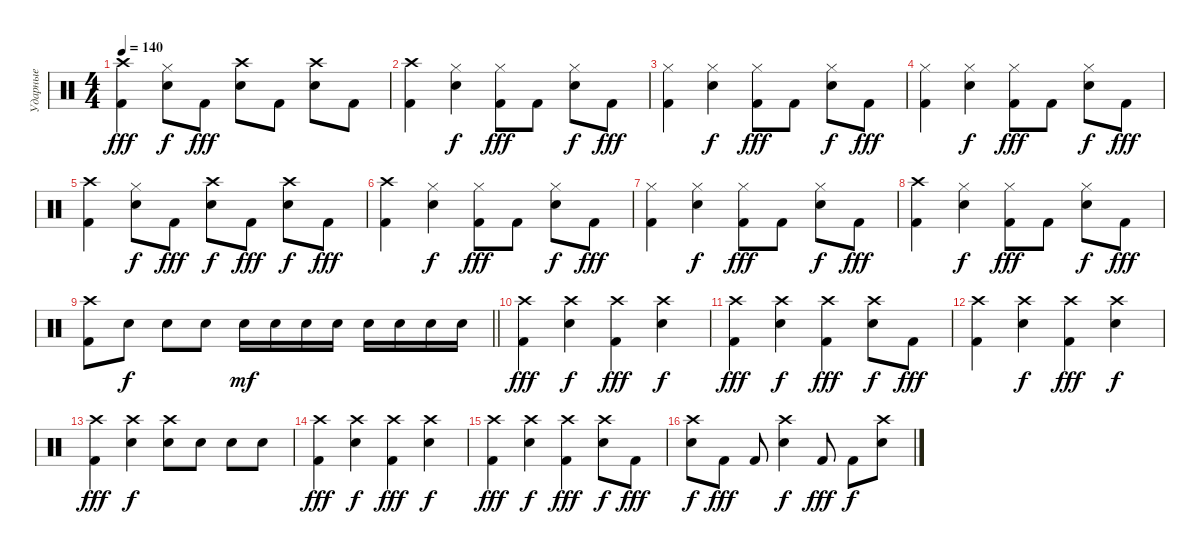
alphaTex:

\track ("Ударные" "Ударные") {instrument percussion}
\staff {score}
\articulation defaults
\ts (4 4)
\tempo 140
\clef neutral
\ks c
("Kick (hit) 2" "Crash high (hit)").4{dy fff} ("Snare (hit) 2" "Hi-Hat (closed)").8{dy f} "Kick (hit) 2".8{dy fff} ("Snare (hit) 2" "Crash high (hit)").8 "Kick (hit) 2".8 ("Snare (hit) 2" "Crash high (hit)").8 "Kick (hit) 2".8 |
("Kick (hit) 2" "Crash high (hit)").4 ("Snare (hit) 2" "Hi-Hat (closed)").4{dy f} ("Kick (hit) 2" "Hi-Hat (closed)").8{dy fff} "Kick (hit) 2".8 ("Snare (hit) 2" "Hi-Hat (closed)").8{dy f} "Kick (hit) 2".8{dy fff} |
("Kick (hit) 2" "Hi-Hat (closed)").4 ("Snare (hit) 2" "Hi-Hat (closed)").4{dy f} ("Kick (hit) 2" "Hi-Hat (closed)").8{dy fff} "Kick (hit) 2".8 ("Snare (hit) 2" "Hi-Hat (closed)").8{dy f} "Kick (hit) 2".8{dy fff} |
("Kick (hit) 2" "Hi-Hat (closed)").4 ("Snare (hit) 2" "Hi-Hat (closed)").4{dy f} ("Kick (hit) 2" "Hi-Hat (closed)").8{dy fff} "Kick (hit) 2".8 ("Snare (hit) 2" "Hi-Hat (closed)").8{dy f} "Kick (hit) 2".8{dy fff} |
("Kick (hit) 2" "Crash high (hit)").4 ("Snare (hit) 2" "Hi-Hat (closed)").8{dy f} "Kick (hit) 2".8{dy fff} ("Snare (hit) 2" "Crash high (hit)").8{dy f} "Kick (hit) 2".8{dy fff} ("Snare (hit) 2" "Crash high (hit)").8{dy f} "Kick (hit) 2".8{dy fff} |
("Kick (hit) 2" "Crash high (hit)").4 ("Snare (hit) 2" "Hi-Hat (closed)").4{dy f} ("Kick (hit) 2" "Hi-Hat (closed)").8{dy fff} "Kick (hit) 2".8 ("Snare (hit) 2" "Hi-Hat (closed)").8{dy f} "Kick (hit) 2".8{dy fff} |
("Kick (hit) 2" "Hi-Hat (closed)").4 ("Snare (hit) 2" "Hi-Hat (closed)").4{dy f} ("Kick (hit) 2" "Hi-Hat (closed)").8{dy fff} "Kick (hit) 2".8 ("Snare (hit) 2" "Hi-Hat (closed)").8{dy f} "Kick (hit) 2".8{dy fff} |
("Kick (hit) 2" "Crash high (hit)").4 ("Snare (hit) 2" "Hi-Hat (closed)").4{dy f} ("Kick (hit) 2" "Hi-Hat (closed)").8{dy fff} "Kick (hit) 2".8 ("Snare (hit) 2" "Hi-Hat (closed)").8{dy f} "Kick (hit) 2".8{dy fff} |
\barLineRight lightlight
("Kick (hit) 2" "Crash high (hit)").8 "Snare (hit) 2".8{dy f} "Snare (hit) 2".8 "Snare (hit) 2".8 "Snare (hit) 2".16{dy mf} "Snare (hit) 2".16 "Snare (hit) 2".16 "Snare (hit) 2".16 "Snare (hit) 2".16 "Snare (hit) 2".16 "Snare (hit) 2".16 "Snare (hit) 2".16 |
("Kick (hit) 2" "Crash high (hit)").4{dy fff} ("Snare (hit) 2" "Crash high (hit)").4{dy f} ("Kick (hit) 2" "Crash high (hit)").4{dy fff} ("Snare (hit) 2" "Crash high (hit)").4{dy f} |
("Kick (hit) 2" "Crash high (hit)").4{dy fff} ("Snare (hit) 2" "Crash high (hit)").4{dy f} ("Kick (hit) 2" "Crash high (hit)").4{dy fff} ("Snare (hit) 2" "Crash high (hit)").8{dy f} "Kick (hit) 2".8{dy fff} |
("Kick (hit) 2" "Crash high (hit)").4 ("Snare (hit) 2" "Crash high (hit)").4{dy f} ("Kick (hit) 2" "Crash high (hit)").4{dy fff} ("Snare (hit) 2" "Crash high (hit)").4{dy f} |
("Kick (hit) 2" "Crash high (hit)").4{dy fff} ("Snare (hit) 2" "Crash high (hit)").4{dy f} ("Snare (hit) 2" "Crash high (hit)").8 "Snare (hit) 2".8 "Snare (hit) 2".8 "Snare (hit) 2".8 |
("Kick (hit) 2" "Crash high (hit)").4{dy fff} ("Snare (hit) 2" "Crash high (hit)").4{dy f} ("Kick (hit) 2" "Crash high (hit)").4{dy fff} ("Snare (hit) 2" "Crash high (hit)").4{dy f} |
("Kick (hit) 2" "Crash high (hit)").4{dy fff} ("Snare (hit) 2" "Crash high (hit)").4{dy f} ("Kick (hit) 2" "Crash high (hit)").4{dy fff} ("Snare (hit) 2" "Crash high (hit)").8{dy f} "Kick (hit) 2".8{dy fff} |
("Snare (hit) 2" "Crash high (hit)").8{dy f} "Kick (hit) 2".8{dy fff} "Kick (hit) 2".8 ("Snare (hit) 2" "Crash high (hit)").4{dy f} "Kick (hit) 2".8{dy fff} "Kick (hit) 2".8{dy f} ("Snare (hit) 2" "Crash high (hit)").8
